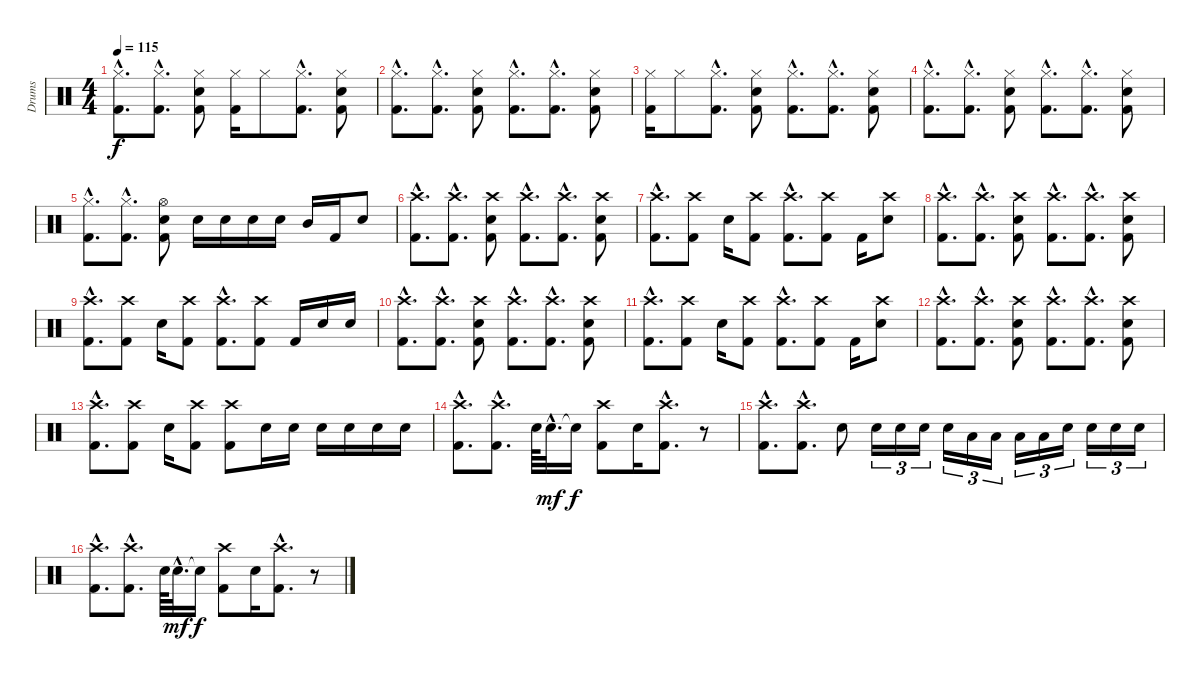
\track ("Drums" "Drums") {instrument percussion}
\staff {score}
\articulation defaults
\ts (4 4)
\tempo 115
\clef neutral
\ks c
("Hi-Hat (closed)"{hac} "Kick (hit) 2"{hac}).8{d dy f} ("Hi-Hat (closed)"{hac} "Kick (hit) 2"{hac}).8{d} ("Hi-Hat (closed)" "Electric Snare (hit)" "Kick (hit) 2").8 ("Hi-Hat (closed)" "Kick (hit) 2").16 "Hi-Hat (closed)".8 ("Hi-Hat (closed)"{hac} "Kick (hit) 2"{hac}).8{d} ("Hi-Hat (closed)" "Electric Snare (hit)" "Kick (hit) 2").8 |
("Hi-Hat (closed)"{hac} "Kick (hit) 2"{hac}).8{d} ("Hi-Hat (closed)"{hac} "Kick (hit) 2"{hac}).8{d} ("Hi-Hat (closed)" "Electric Snare (hit)" "Kick (hit) 2").8 ("Hi-Hat (closed)"{hac} "Kick (hit) 2"{hac}).8{d} ("Hi-Hat (closed)"{hac} "Kick (hit) 2"{hac}).8{d} ("Hi-Hat (closed)" "Electric Snare (hit)" "Kick (hit) 2").8 |
("Hi-Hat (closed)" "Kick (hit) 2").16 "Hi-Hat (closed)".8 ("Hi-Hat (closed)"{hac} "Kick (hit) 2"{hac}).8{d} ("Hi-Hat (closed)" "Electric Snare (hit)" "Kick (hit) 2").8 ("Hi-Hat (closed)"{hac} "Kick (hit) 2"{hac}).8{d} ("Hi-Hat (closed)"{hac} "Kick (hit) 2"{hac}).8{d} ("Hi-Hat (closed)" "Electric Snare (hit)" "Kick (hit) 2").8 |
("Hi-Hat (closed)"{hac} "Kick (hit) 2"{hac}).8{d} ("Hi-Hat (closed)"{hac} "Kick (hit) 2"{hac}).8{d} ("Hi-Hat (closed)" "Electric Snare (hit)" "Kick (hit) 2").8 ("Hi-Hat (closed)"{hac} "Kick (hit) 2"{hac}).8{d} ("Hi-Hat (closed)"{hac} "Kick (hit) 2"{hac}).8{d} ("Hi-Hat (closed)" "Electric Snare (hit)" "Kick (hit) 2").8 |
("Hi-Hat (closed)"{hac} "Kick (hit) 2"{hac}).8{d} ("Hi-Hat (closed)"{hac} "Kick (hit) 2"{hac}).8{d} ("Hi-Hat (open)" "Electric Snare (hit)" "Kick (hit) 2").8 "Electric Snare (hit)".16 "Electric Snare (hit)".16 "Electric Snare (hit)".16 "Electric Snare (hit)".16 "Mid Tom (hit)".16 "Kick (hit) 2".16 "Electric Snare (hit)".8 |
("Crash high (hit)"{hac} "Kick (hit) 2"{hac}).8{d} ("Crash high (hit)"{hac} "Kick (hit) 2"{hac}).8{d} ("Crash high (hit)" "Electric Snare (hit)" "Kick (hit) 2").8 ("Crash high (hit)"{hac} "Kick (hit) 2"{hac}).8{d} ("Crash high (hit)"{hac} "Kick (hit) 2"{hac}).8{d} ("Crash high (hit)" "Electric Snare (hit)" "Kick (hit) 2").8 |
("Crash high (hit)"{hac} "Kick (hit) 2"{hac}).8{d} ("Crash high (hit)" "Kick (hit) 2").8 "Electric Snare (hit)".16 ("Crash high (hit)" "Kick (hit) 2").8 ("Crash high (hit)"{hac} "Kick (hit) 2"{hac}).8{d} ("Crash high (hit)" "Kick (hit) 2").8 "Kick (hit) 2".16 ("Crash high (hit)" "Electric Snare (hit)").8 |
("Crash high (hit)"{hac} "Kick (hit) 2"{hac}).8{d} ("Crash high (hit)"{hac} "Kick (hit) 2"{hac}).8{d} ("Crash high (hit)" "Electric Snare (hit)" "Kick (hit) 2").8 ("Crash high (hit)"{hac} "Kick (hit) 2"{hac}).8{d} ("Crash high (hit)"{hac} "Kick (hit) 2"{hac}).8{d} ("Crash high (hit)" "Electric Snare (hit)" "Kick (hit) 2").8 |
("Crash high (hit)"{hac} "Kick (hit) 2"{hac}).8{d} ("Crash high (hit)" "Kick (hit) 2").8 "Electric Snare (hit)".16 ("Crash high (hit)" "Kick (hit) 2").8 ("Crash high (hit)"{hac} "Kick (hit) 2"{hac}).8{d} ("Crash high (hit)" "Kick (hit) 2").8 "Kick (hit) 2".16 "Electric Snare (hit)".16 "Electric Snare (hit)".16 |
("Crash high (hit)"{hac} "Kick (hit) 2"{hac}).8{d} ("Crash high (hit)"{hac} "Kick (hit) 2"{hac}).8{d} ("Crash high (hit)" "Electric Snare (hit)" "Kick (hit) 2").8 ("Crash high (hit)"{hac} "Kick (hit) 2"{hac}).8{d} ("Crash high (hit)"{hac} "Kick (hit) 2"{hac}).8{d} ("Crash high (hit)" "Electric Snare (hit)" "Kick (hit) 2").8 |
("Crash high (hit)"{hac} "Kick (hit) 2"{hac}).8{d} ("Crash high (hit)" "Kick (hit) 2").8 "Electric Snare (hit)".16 ("Crash high (hit)" "Kick (hit) 2").8 ("Crash high (hit)"{hac} "Kick (hit) 2"{hac}).8{d} ("Crash high (hit)" "Kick (hit) 2").8 "Kick (hit) 2".16 ("Crash high (hit)" "Electric Snare (hit)").8 |
("Crash high (hit)"{hac} "Kick (hit) 2"{hac}).8{d} ("Crash high (hit)"{hac} "Kick (hit) 2"{hac}).8{d} ("Crash high (hit)" "Electric Snare (hit)" "Kick (hit) 2").8 ("Crash high (hit)"{hac} "Kick (hit) 2"{hac}).8{d} ("Crash high (hit)"{hac} "Kick (hit) 2"{hac}).8{d} ("Crash high (hit)" "Electric Snare (hit)" "Kick (hit) 2").8 |
("Crash high (hit)"{hac} "Kick (hit) 2"{hac}).8{d} ("Crash high (hit)" "Kick (hit) 2").8 "Electric Snare (hit)".16 ("Crash high (hit)" "Kick (hit) 2").8 ("Crash high (hit)" "Kick (hit) 2").8 "Electric Snare (hit)".16 "Electric Snare (hit)".16 "Electric Snare (hit)".16 "Electric Snare (hit)".16 "Electric Snare (hit)".16 "Electric Snare (hit)".16 |
("Crash high (hit)"{hac} "Kick (hit) 2"{hac}).8{d} ("Crash high (hit)"{hac} "Kick (hit) 2"{hac}).8{d} "Electric Snare (hit)".64 "Electric Snare (hit)"{hac}.32{d dy mf} "Snare (hit)"{t}.16{dy f} ("Crash high (hit)" "Kick (hit) 2").8 "Electric Snare (hit)".16 ("Crash high (hit)"{hac} "Kick (hit) 2"{hac}).8{d} r.8 |
("Crash high (hit)"{hac} "Kick (hit) 2"{hac}).8{d} ("Crash high (hit)"{hac} "Kick (hit) 2"{hac}).8{d} "Electric Snare (hit)".8 "Electric Snare (hit)".16{tu (3 2)} "Electric Snare (hit)".16{tu (3 2)} "Electric Snare (hit)".16{tu (3 2)} "Electric Snare (hit)".16{tu (3 2)} "Low Tom (hit)".16{tu (3 2)} "Low Tom (hit)".16{tu (3 2)} "Low Tom (hit)".16{tu (3 2)} "Low Tom (hit)".16{tu (3 2)} "Electric Snare (hit)".16{tu (3 2)} "Electric Snare (hit)".16{tu (3 2)} "Electric Snare (hit)".16{tu (3 2)} "Electric Snare (hit)".16{tu (3 2)} |
("Crash high (hit)"{hac} "Kick (hit) 2"{hac}).8{d} ("Crash high (hit)"{hac} "Kick (hit) 2"{hac}).8{d} "Electric Snare (hit)".64 "Electric Snare (hit)"{hac}.32{d dy mf} "Snare (hit)"{t}.16{dy f} ("Crash high (hit)" "Kick (hit) 2").8 "Electric Snare (hit)".16 ("Crash high (hit)"{hac} "Kick (hit) 2"{hac}).8{d} r.8
